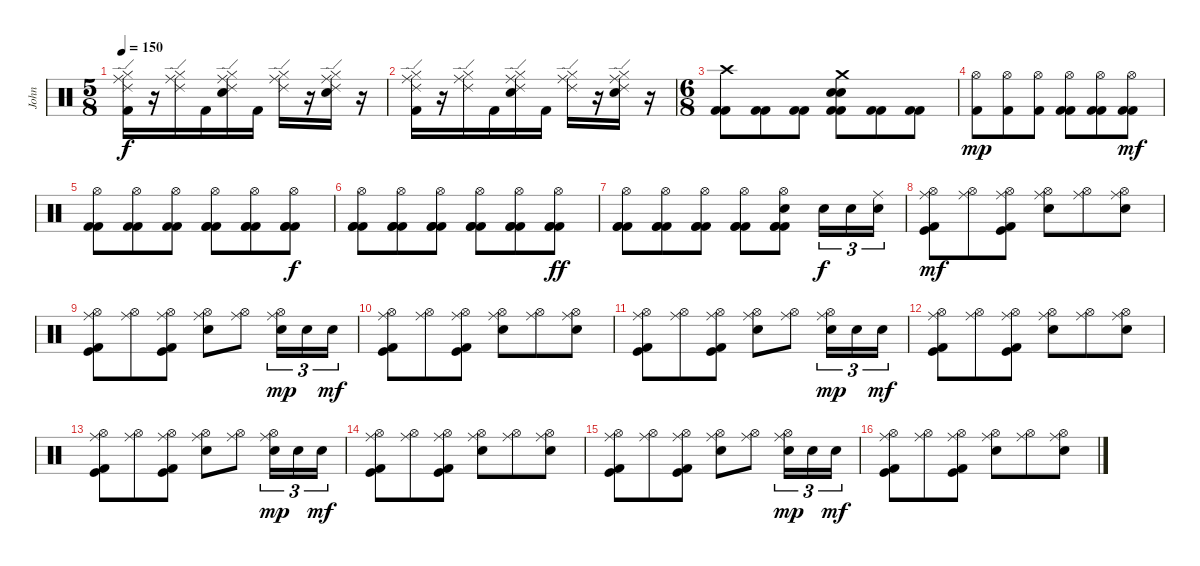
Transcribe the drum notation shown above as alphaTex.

\track ("John" "John") {instrument percussion}
\staff {score}
\articulation defaults
\ts (5 8)
\tempo 150
\clef neutral
\ks c
("Ride (middle)" "Kick (hit) 2" "Ride (edge) 2" "Hi-Hat (closed)").16{dy f} r.16 ("Ride (middle)" "Ride (edge) 2" "Hi-Hat (closed)").16 "Kick (hit) 2".16 ("Ride (middle)" "Electric Snare (hit)" "Ride (edge) 2" "Hi-Hat (closed)").16 "Kick (hit) 2".16 ("Ride (middle)" "Ride (edge) 2" "Hi-Hat (closed)").16 r.16 ("Ride (middle)" "Electric Snare (hit)" "Ride (edge) 2" "Hi-Hat (closed)").16 r.16 |
("Ride (middle)" "Kick (hit) 2" "Ride (edge) 2" "Hi-Hat (closed)").16 r.16 ("Ride (middle)" "Ride (edge) 2" "Hi-Hat (closed)").16 "Kick (hit) 2".16 ("Ride (middle)" "Electric Snare (hit)" "Ride (edge) 2" "Hi-Hat (closed)").16 "Kick (hit) 2".16 ("Ride (middle)" "Ride (edge) 2" "Hi-Hat (closed)").16 r.16 ("Ride (middle)" "Electric Snare (hit)" "Ride (edge) 2" "Hi-Hat (closed)").16 r.16 |
\ts (6 8)
("Crash high (hit)" "Kick (hit) 2" "Kick (hit) 2").8 ("Kick (hit) 2" "Kick (hit) 2").8 ("Kick (hit) 2" "Kick (hit) 2").8 ("Crash medium (hit)" "Electric Snare (hit)" "Electric Snare (hit)" "Kick (hit) 2" "Kick (hit) 2").8 ("Kick (hit) 2" "Kick (hit) 2").8 ("Kick (hit) 2" "Kick (hit) 2").8 |
("Hi-Hat (open)" "Kick (hit) 2").8{dy mp} ("Hi-Hat (open)" "Kick (hit) 2").8 ("Hi-Hat (open)" "Kick (hit) 2").8 ("Hi-Hat (open)" "Kick (hit) 2" "Kick (hit) 2").8 ("Hi-Hat (open)" "Kick (hit) 2" "Kick (hit) 2").8 ("Hi-Hat (open)" "Kick (hit) 2" "Kick (hit) 2").8{dy mf} |
("Hi-Hat (open)" "Kick (hit) 2" "Kick (hit) 2").8 ("Hi-Hat (open)" "Kick (hit) 2" "Kick (hit) 2").8 ("Hi-Hat (open)" "Kick (hit) 2" "Kick (hit) 2").8 ("Hi-Hat (open)" "Kick (hit) 2" "Kick (hit) 2" "Kick (hit) 2").8 ("Hi-Hat (open)" "Kick (hit) 2" "Kick (hit) 2" "Kick (hit) 2").8 ("Hi-Hat (open)" "Kick (hit) 2" "Kick (hit) 2" "Kick (hit) 2").8{dy f} |
("Hi-Hat (open)" "Kick (hit) 2" "Kick (hit) 2" "Kick (hit) 2").8 ("Hi-Hat (open)" "Kick (hit) 2" "Kick (hit) 2" "Kick (hit) 2").8 ("Hi-Hat (open)" "Kick (hit) 2" "Kick (hit) 2" "Kick (hit) 2").8 ("Hi-Hat (open)" "Kick (hit) 2" "Kick (hit) 2" "Kick (hit) 2").8 ("Hi-Hat (open)" "Kick (hit) 2" "Kick (hit) 2" "Kick (hit) 2").8 ("Hi-Hat (open)" "Kick (hit) 2" "Kick (hit) 2" "Kick (hit) 2").8{dy ff} |
("Hi-Hat (open)" "Kick (hit) 2" "Kick (hit) 2" "Kick (hit) 2").8 ("Hi-Hat (open)" "Kick (hit) 2" "Kick (hit) 2" "Kick (hit) 2").8 ("Hi-Hat (open)" "Kick (hit) 2" "Kick (hit) 2" "Kick (hit) 2").8 ("Hi-Hat (open)" "Kick (hit) 2" "Kick (hit) 2" "Kick (hit) 2").8 ("Hi-Hat (open)" "Electric Snare (hit)" "Kick (hit) 2" "Kick (hit) 2" "Kick (hit) 2").8 "Electric Snare (hit)".16{tu (3 2) dy f} "Electric Snare (hit)".16{tu (3 2)} ("Ride (middle)" "Electric Snare (hit)").16{tu (3 2)} |
("Ride (middle)" "Hi-Hat (open)" "Kick (hit)" "Kick (hit) 2").8{dy mf} ("Ride (middle)" "Hi-Hat (open)").8 ("Ride (middle)" "Hi-Hat (open)" "Kick (hit)" "Kick (hit) 2").8 ("Ride (middle)" "Hi-Hat (open)" "Electric Snare (hit)").8 ("Ride (middle)" "Hi-Hat (open)").8 ("Ride (middle)" "Hi-Hat (open)" "Electric Snare (hit)").8 |
("Ride (middle)" "Hi-Hat (open)" "Kick (hit)" "Kick (hit) 2").8 ("Ride (middle)" "Hi-Hat (open)").8 ("Ride (middle)" "Hi-Hat (open)" "Kick (hit)" "Kick (hit) 2").8 ("Ride (middle)" "Hi-Hat (open)" "Electric Snare (hit)").8 ("Ride (middle)" "Hi-Hat (open)").8 ("Ride (middle)" "Hi-Hat (open)" "Electric Snare (hit)").16{tu (3 2) dy mp} "Electric Snare (hit)".16{tu (3 2)} "Electric Snare (hit)".16{tu (3 2) dy mf} |
("Ride (middle)" "Hi-Hat (open)" "Kick (hit)" "Kick (hit) 2").8 ("Ride (middle)" "Hi-Hat (open)").8 ("Ride (middle)" "Hi-Hat (open)" "Kick (hit)" "Kick (hit) 2").8 ("Ride (middle)" "Hi-Hat (open)" "Electric Snare (hit)").8 ("Ride (middle)" "Hi-Hat (open)").8 ("Ride (middle)" "Hi-Hat (open)" "Electric Snare (hit)").8 |
("Ride (middle)" "Hi-Hat (open)" "Kick (hit)" "Kick (hit) 2").8 ("Ride (middle)" "Hi-Hat (open)").8 ("Ride (middle)" "Hi-Hat (open)" "Kick (hit)" "Kick (hit) 2").8 ("Ride (middle)" "Hi-Hat (open)" "Electric Snare (hit)").8 ("Ride (middle)" "Hi-Hat (open)").8 ("Ride (middle)" "Hi-Hat (open)" "Electric Snare (hit)").16{tu (3 2) dy mp} "Electric Snare (hit)".16{tu (3 2)} "Electric Snare (hit)".16{tu (3 2) dy mf} |
("Ride (middle)" "Hi-Hat (open)" "Kick (hit)" "Kick (hit) 2").8 ("Ride (middle)" "Hi-Hat (open)").8 ("Ride (middle)" "Hi-Hat (open)" "Kick (hit)" "Kick (hit) 2").8 ("Ride (middle)" "Hi-Hat (open)" "Electric Snare (hit)").8 ("Ride (middle)" "Hi-Hat (open)").8 ("Ride (middle)" "Hi-Hat (open)" "Electric Snare (hit)").8 |
("Ride (middle)" "Hi-Hat (open)" "Kick (hit)" "Kick (hit) 2").8 ("Ride (middle)" "Hi-Hat (open)").8 ("Ride (middle)" "Hi-Hat (open)" "Kick (hit)" "Kick (hit) 2").8 ("Ride (middle)" "Hi-Hat (open)" "Electric Snare (hit)").8 ("Ride (middle)" "Hi-Hat (open)").8 ("Ride (middle)" "Hi-Hat (open)" "Electric Snare (hit)").16{tu (3 2) dy mp} "Electric Snare (hit)".16{tu (3 2)} "Electric Snare (hit)".16{tu (3 2) dy mf} |
("Ride (middle)" "Hi-Hat (open)" "Kick (hit)" "Kick (hit) 2").8 ("Ride (middle)" "Hi-Hat (open)").8 ("Ride (middle)" "Hi-Hat (open)" "Kick (hit)" "Kick (hit) 2").8 ("Ride (middle)" "Hi-Hat (open)" "Electric Snare (hit)").8 ("Ride (middle)" "Hi-Hat (open)").8 ("Ride (middle)" "Hi-Hat (open)" "Electric Snare (hit)").8 |
("Ride (middle)" "Hi-Hat (open)" "Kick (hit)" "Kick (hit) 2").8 ("Ride (middle)" "Hi-Hat (open)").8 ("Ride (middle)" "Hi-Hat (open)" "Kick (hit)" "Kick (hit) 2").8 ("Ride (middle)" "Hi-Hat (open)" "Electric Snare (hit)").8 ("Ride (middle)" "Hi-Hat (open)").8 ("Ride (middle)" "Hi-Hat (open)" "Electric Snare (hit)").16{tu (3 2) dy mp} "Electric Snare (hit)".16{tu (3 2)} "Electric Snare (hit)".16{tu (3 2) dy mf} |
("Ride (middle)" "Hi-Hat (open)" "Kick (hit)" "Kick (hit) 2").8 ("Ride (middle)" "Hi-Hat (open)").8 ("Ride (middle)" "Hi-Hat (open)" "Kick (hit)" "Kick (hit) 2").8 ("Ride (middle)" "Hi-Hat (open)" "Electric Snare (hit)").8 ("Ride (middle)" "Hi-Hat (open)").8 ("Ride (middle)" "Hi-Hat (open)" "Electric Snare (hit)").8
